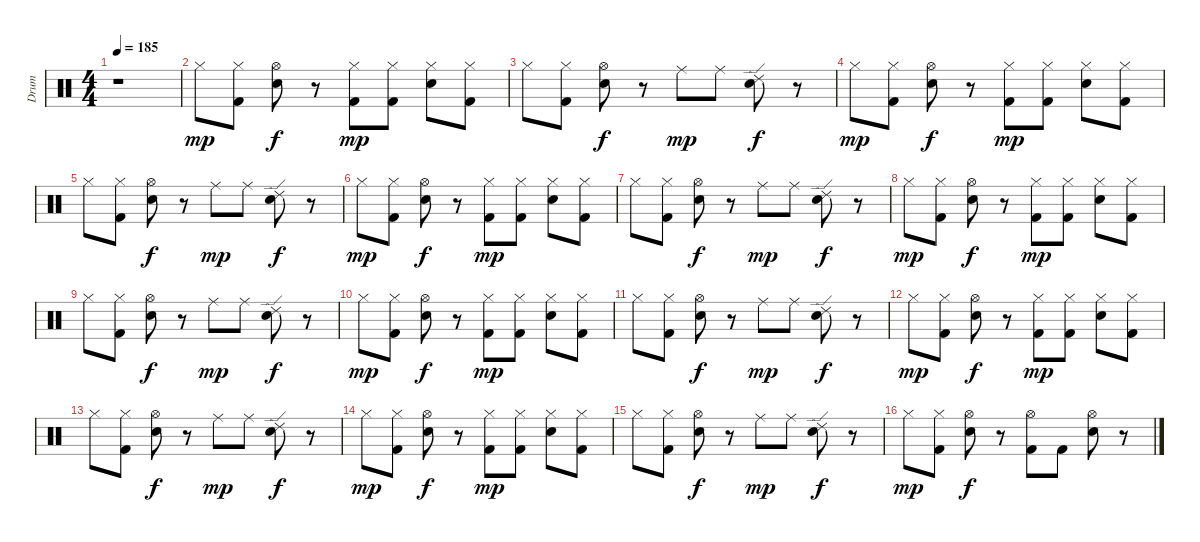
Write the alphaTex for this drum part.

\track ("Drum" "Drum") {instrument percussion}
\staff {score}
\articulation defaults
\ts (4 4)
\tempo 185
\clef neutral
\ks c
r.1{dy mp} |
"Hi-Hat (closed)".8 ("Hi-Hat (closed)" "Kick (hit) 2").8 ("Electric Snare (hit)" "Hi-Hat (open)").8{dy f} r.8 ("Hi-Hat (closed)" "Kick (hit) 2").8{dy mp} ("Hi-Hat (closed)" "Kick (hit) 2").8 ("Hi-Hat (closed)" "Electric Snare (hit)").8 ("Hi-Hat (closed)" "Kick (hit) 2").8 |
"Hi-Hat (closed)".8 ("Hi-Hat (closed)" "Kick (hit) 2").8 ("Electric Snare (hit)" "Hi-Hat (open)").8{dy f} r.8 "Ride (middle)".8{dy mp} "Ride (middle)".8 ("Ride (edge) 2" "Electric Snare (hit)").8{dy f} r.8 |
"Hi-Hat (closed)".8{dy mp} ("Hi-Hat (closed)" "Kick (hit) 2").8 ("Electric Snare (hit)" "Hi-Hat (open)").8{dy f} r.8 ("Hi-Hat (closed)" "Kick (hit) 2").8{dy mp} ("Hi-Hat (closed)" "Kick (hit) 2").8 ("Hi-Hat (closed)" "Electric Snare (hit)").8 ("Hi-Hat (closed)" "Kick (hit) 2").8 |
"Hi-Hat (closed)".8 ("Hi-Hat (closed)" "Kick (hit) 2").8 ("Electric Snare (hit)" "Hi-Hat (open)").8{dy f} r.8 "Ride (middle)".8{dy mp} "Ride (middle)".8 ("Ride (edge) 2" "Electric Snare (hit)").8{dy f} r.8 |
"Hi-Hat (closed)".8{dy mp} ("Hi-Hat (closed)" "Kick (hit) 2").8 ("Electric Snare (hit)" "Hi-Hat (open)").8{dy f} r.8 ("Hi-Hat (closed)" "Kick (hit) 2").8{dy mp} ("Hi-Hat (closed)" "Kick (hit) 2").8 ("Hi-Hat (closed)" "Electric Snare (hit)").8 ("Hi-Hat (closed)" "Kick (hit) 2").8 |
"Hi-Hat (closed)".8 ("Hi-Hat (closed)" "Kick (hit) 2").8 ("Electric Snare (hit)" "Hi-Hat (open)").8{dy f} r.8 "Ride (middle)".8{dy mp} "Ride (middle)".8 ("Ride (edge) 2" "Electric Snare (hit)").8{dy f} r.8 |
"Hi-Hat (closed)".8{dy mp} ("Hi-Hat (closed)" "Kick (hit) 2").8 ("Electric Snare (hit)" "Hi-Hat (open)").8{dy f} r.8 ("Hi-Hat (closed)" "Kick (hit) 2").8{dy mp} ("Hi-Hat (closed)" "Kick (hit) 2").8 ("Hi-Hat (closed)" "Electric Snare (hit)").8 ("Hi-Hat (closed)" "Kick (hit) 2").8 |
"Hi-Hat (closed)".8 ("Hi-Hat (closed)" "Kick (hit) 2").8 ("Electric Snare (hit)" "Hi-Hat (open)").8{dy f} r.8 "Ride (middle)".8{dy mp} "Ride (middle)".8 ("Ride (edge) 2" "Electric Snare (hit)").8{dy f} r.8 |
"Hi-Hat (closed)".8{dy mp} ("Hi-Hat (closed)" "Kick (hit) 2").8 ("Electric Snare (hit)" "Hi-Hat (open)").8{dy f} r.8 ("Hi-Hat (closed)" "Kick (hit) 2").8{dy mp} ("Hi-Hat (closed)" "Kick (hit) 2").8 ("Hi-Hat (closed)" "Electric Snare (hit)").8 ("Hi-Hat (closed)" "Kick (hit) 2").8 |
"Hi-Hat (closed)".8 ("Hi-Hat (closed)" "Kick (hit) 2").8 ("Electric Snare (hit)" "Hi-Hat (open)").8{dy f} r.8 "Ride (middle)".8{dy mp} "Ride (middle)".8 ("Ride (edge) 2" "Electric Snare (hit)").8{dy f} r.8 |
"Hi-Hat (closed)".8{dy mp} ("Hi-Hat (closed)" "Kick (hit) 2").8 ("Electric Snare (hit)" "Hi-Hat (open)").8{dy f} r.8 ("Hi-Hat (closed)" "Kick (hit) 2").8{dy mp} ("Hi-Hat (closed)" "Kick (hit) 2").8 ("Hi-Hat (closed)" "Electric Snare (hit)").8 ("Hi-Hat (closed)" "Kick (hit) 2").8 |
"Hi-Hat (closed)".8 ("Hi-Hat (closed)" "Kick (hit) 2").8 ("Electric Snare (hit)" "Hi-Hat (open)").8{dy f} r.8 "Ride (middle)".8{dy mp} "Ride (middle)".8 ("Ride (edge) 2" "Electric Snare (hit)").8{dy f} r.8 |
"Hi-Hat (closed)".8{dy mp} ("Hi-Hat (closed)" "Kick (hit) 2").8 ("Electric Snare (hit)" "Hi-Hat (open)").8{dy f} r.8 ("Hi-Hat (closed)" "Kick (hit) 2").8{dy mp} ("Hi-Hat (closed)" "Kick (hit) 2").8 ("Hi-Hat (closed)" "Electric Snare (hit)").8 ("Hi-Hat (closed)" "Kick (hit) 2").8 |
"Hi-Hat (closed)".8 ("Hi-Hat (closed)" "Kick (hit) 2").8 ("Electric Snare (hit)" "Hi-Hat (open)").8{dy f} r.8 "Ride (middle)".8{dy mp} "Ride (middle)".8 ("Ride (edge) 2" "Electric Snare (hit)").8{dy f} r.8 |
"Hi-Hat (closed)".8{dy mp} ("Hi-Hat (closed)" "Kick (hit) 2").8 ("Hi-Hat (open)" "Electric Snare (hit)").8{dy f} r.8 ("Kick (hit) 2" "Hi-Hat (open)").8 "Kick (hit) 2".8 ("Hi-Hat (open)" "Electric Snare (hit)").8 r.8
